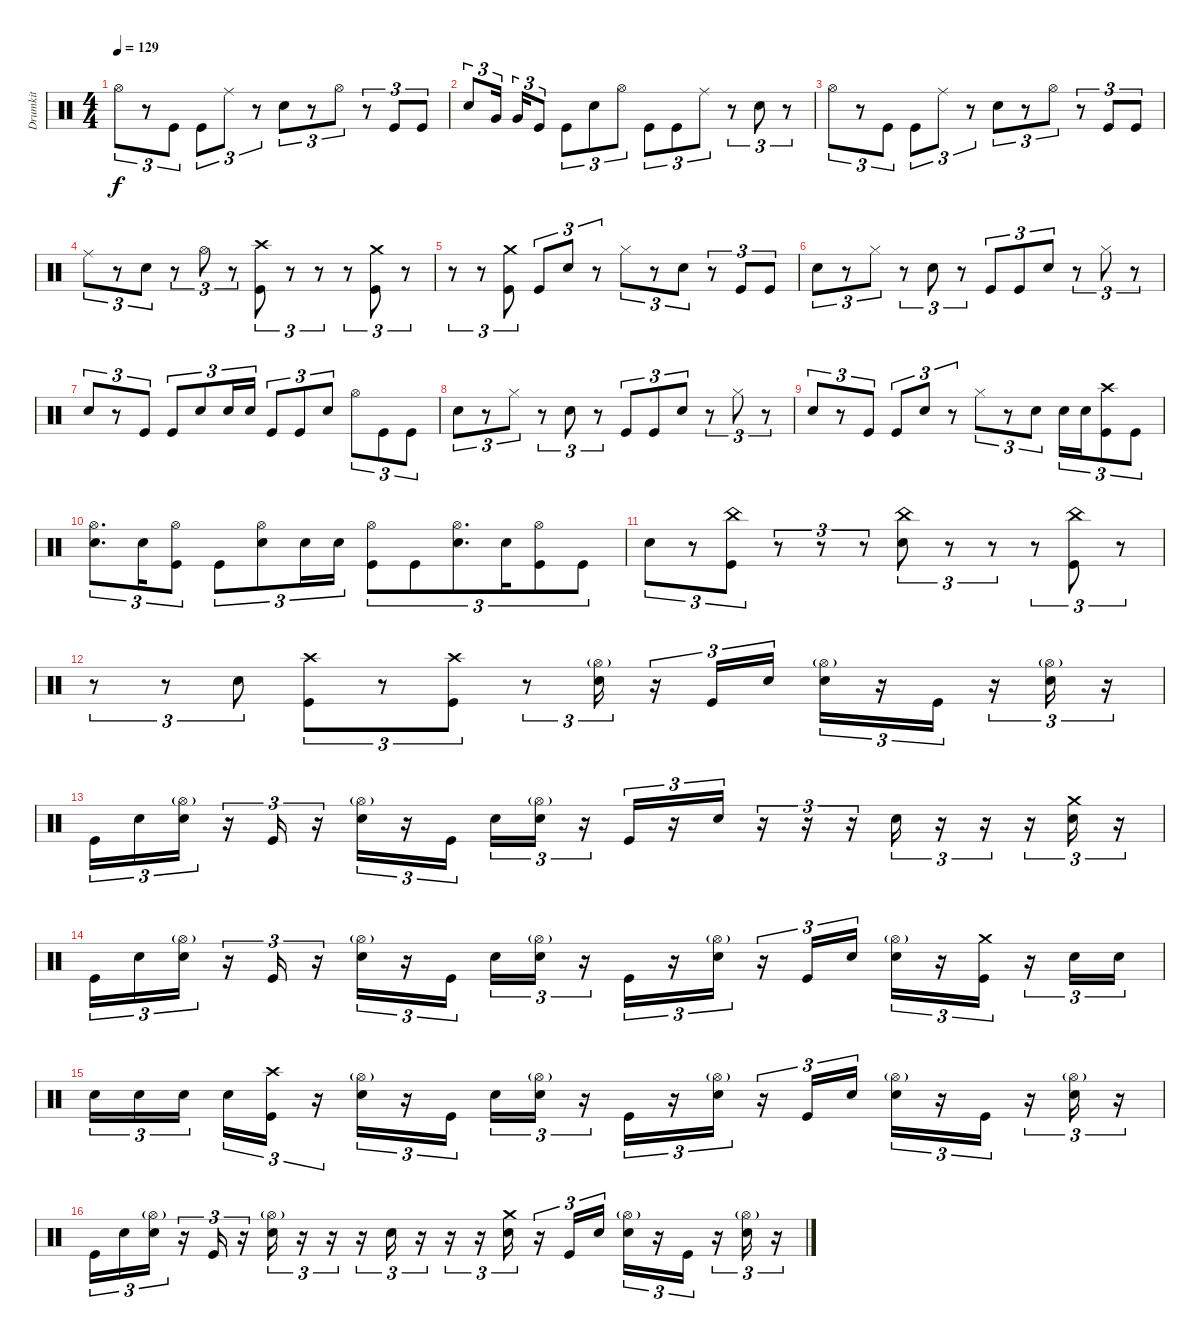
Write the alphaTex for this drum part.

\track ("Drumkit" "Drumkit") {instrument percussion}
\staff {score}
\articulation defaults
\ts (4 4)
\tempo 129
\clef neutral
\ks c "Hi-Hat (open)".8{tu (3 2) dy f}
r.8{tu (3 2)} "Kick (hit)".8{tu (3 2)} "Kick (hit)".8{tu (3 2)} "Ride (middle)".8{tu (3 2)} r.8{tu (3 2)} "Snare (hit) 2".8{tu (3 2)} r.8{tu (3 2)} "Hi-Hat (open)".8{tu (3 2)} r.8{tu (3 2)} "Kick (hit)".8{tu (3 2)} "Kick (hit)".8{tu (3 2)} |
"Snare (hit) 2".8{tu (3 2)} "Very Low Tom (hit)".16{tu (3 2)} "Very Low Tom (hit)".16{tu (3 2)} "Kick (hit)".8{tu (3 2)} "Kick (hit)".8{tu (3 2)} "Snare (hit) 2".8{tu (3 2)} "Hi-Hat (open)".8{tu (3 2)} "Kick (hit)".8{tu (3 2)} "Kick (hit)".8{tu (3 2)} "Ride (middle)".8{tu (3 2)} r.8{tu (3 2)} "Snare (hit) 2".8{tu (3 2)} r.8{tu (3 2)} |
"Hi-Hat (open)".8{tu (3 2)} r.8{tu (3 2)} "Kick (hit)".8{tu (3 2)} "Kick (hit)".8{tu (3 2)} "Ride (middle)".8{tu (3 2)} r.8{tu (3 2)} "Snare (hit) 2".8{tu (3 2)} r.8{tu (3 2)} "Hi-Hat (open)".8{tu (3 2)} r.8{tu (3 2)} "Kick (hit)".8{tu (3 2)} "Kick (hit)".8{tu (3 2)} |
"Ride (middle)".8{tu (3 2)} r.8{tu (3 2)} "Snare (hit) 2".8{tu (3 2)} r.8{tu (3 2)} "Hi-Hat (open)".8{tu (3 2)} r.8{tu (3 2)} ("Kick (hit)" "Crash high (hit)").8{tu (3 2)} r.8{tu (3 2)} r.8{tu (3 2)} r.8{tu (3 2)} ("Kick (hit)" "Crash medium (hit)").8{tu (3 2)} r.8{tu (3 2)} |
r.8{tu (3 2)} r.8{tu (3 2)} ("Kick (hit)" "Crash medium (hit)").8{tu (3 2)} "Kick (hit)".8{tu (3 2)} "Snare (hit) 2".8{tu (3 2)} r.8{tu (3 2)} "Hi-Hat (closed)".8{tu (3 2)} r.8{tu (3 2)} "Snare (hit) 2".8{tu (3 2)} r.8{tu (3 2)} "Kick (hit)".8{tu (3 2)} "Kick (hit)".8{tu (3 2)} |
"Snare (hit) 2".8{tu (3 2)} r.8{tu (3 2)} "Hi-Hat (closed)".8{tu (3 2)} r.8{tu (3 2)} "Snare (hit) 2".8{tu (3 2)} r.8{tu (3 2)} "Kick (hit)".8{tu (3 2)} "Kick (hit)".8{tu (3 2)} "Snare (hit) 2".8{tu (3 2)} r.8{tu (3 2)} "Hi-Hat (closed)".8{tu (3 2)} r.8{tu (3 2)} |
"Snare (hit) 2".8{tu (3 2)} r.8{tu (3 2)} "Kick (hit)".8{tu (3 2)} "Kick (hit)".8{tu (3 2)} "Snare (hit) 2".8{tu (3 2)} "Snare (hit) 2".16{tu (3 2)} "Snare (hit) 2".16{tu (3 2)} "Kick (hit)".8{tu (3 2)} "Kick (hit)".8{tu (3 2)} "Snare (hit) 2".8{tu (3 2)} "Hi-Hat (open)".8{tu (3 2)} "Kick (hit)".8{tu (3 2)} "Kick (hit)".8{tu (3 2)} |
"Snare (hit) 2".8{tu (3 2)} r.8{tu (3 2)} "Hi-Hat (closed)".8{tu (3 2)} r.8{tu (3 2)} "Snare (hit) 2".8{tu (3 2)} r.8{tu (3 2)} "Kick (hit)".8{tu (3 2)} "Kick (hit)".8{tu (3 2)} "Snare (hit) 2".8{tu (3 2)} r.8{tu (3 2)} "Hi-Hat (closed)".8{tu (3 2)} r.8{tu (3 2)} |
"Snare (hit) 2".8{tu (3 2)} r.8{tu (3 2)} "Kick (hit)".8{tu (3 2)} "Kick (hit)".8{tu (3 2)} "Snare (hit) 2".8{tu (3 2)} r.8{tu (3 2)} "Hi-Hat (closed)".8{tu (3 2)} r.8{tu (3 2)} "Snare (hit) 2".8{tu (3 2)} "Snare (hit) 2".16{tu (3 2)} "Snare (hit) 2".16{tu (3 2)} ("Kick (hit)" "Crash high (hit)").8{tu (3 2)} "Kick (hit)".8{tu (3 2)} |
("Snare (hit) 2" "Hi-Hat (open)").8{d tu (3 2)} "Snare (hit) 2".16{tu (3 2)} ("Kick (hit)" "Hi-Hat (open)").8{tu (3 2)} "Kick (hit)".8{tu (3 2)} ("Snare (hit) 2" "Hi-Hat (open)").8{tu (3 2)} "Snare (hit) 2".16{tu (3 2)} "Snare (hit) 2".16{tu (3 2)} ("Kick (hit)" "Hi-Hat (open)").8{tu (3 2)} "Kick (hit)".8{tu (3 2)} ("Snare (hit) 2" "Hi-Hat (open)").8{d tu (3 2)} "Snare (hit) 2".16{tu (3 2)} ("Kick (hit)" "Hi-Hat (open)").8{tu (3 2)} "Kick (hit)".8{tu (3 2)} |
"Snare (hit) 2".8{tu (3 2)} r.8{tu (3 2)} ("Kick (hit)" "China (hit)").8{tu (3 2)} r.8{tu (3 2)} r.8{tu (3 2)} r.8{tu (3 2)} ("Snare (hit) 2" "China (hit)").8{tu (3 2)} r.8{tu (3 2)} r.8{tu (3 2)} r.8{tu (3 2)} ("Kick (hit)" "China (hit)").8{tu (3 2)} r.8{tu (3 2)} |
r.8{tu (3 2)} r.8{tu (3 2)} "Snare (hit) 2".8{tu (3 2)} ("Kick (hit)" "Crash high (hit)").8{tu (3 2)} r.8{tu (3 2)} ("Kick (hit)" "Crash high (hit)").8{tu (3 2)} r.8{tu (3 2)} ("Snare (hit) 2" "Hi-Hat (open)"{g}).16{tu (3 2)} r.16{tu (3 2)} "Kick (hit)".16{tu (3 2)} "Snare (hit) 2".16{tu (3 2)} ("Snare (hit) 2" "Hi-Hat (open)"{g}).16{tu (3 2)} r.16{tu (3 2)} "Kick (hit)".16{tu (3 2)} r.16{tu (3 2)} ("Snare (hit) 2" "Hi-Hat (open)"{g}).16{tu (3 2)} r.16{tu (3 2)} |
"Kick (hit)".16{tu (3 2)} "Snare (hit) 2".16{tu (3 2)} ("Snare (hit) 2" "Hi-Hat (open)"{g}).16{tu (3 2)} r.16{tu (3 2)} "Kick (hit)".16{tu (3 2)} r.16{tu (3 2)} ("Snare (hit) 2" "Hi-Hat (open)"{g}).16{tu (3 2)} r.16{tu (3 2)} "Kick (hit)".16{tu (3 2)} "Snare (hit) 2".16{tu (3 2)} ("Snare (hit) 2" "Hi-Hat (open)"{g}).16{tu (3 2)} r.16{tu (3 2)} "Kick (hit)".16{tu (3 2)} r.16{tu (3 2)} "Snare (hit) 2".16{tu (3 2)} r.16{tu (3 2)} r.16{tu (3 2)} r.16{tu (3 2)} "Snare (hit) 2".16{tu (3 2)} r.16{tu (3 2)} r.16{tu (3 2)} r.16{tu (3 2)} ("Snare (hit) 2" "Crash medium (hit)").16{tu (3 2)} r.16{tu (3 2)} |
"Kick (hit)".16{tu (3 2)} "Snare (hit) 2".16{tu (3 2)} ("Snare (hit) 2" "Hi-Hat (open)"{g}).16{tu (3 2)} r.16{tu (3 2)} "Kick (hit)".16{tu (3 2)} r.16{tu (3 2)} ("Snare (hit) 2" "Hi-Hat (open)"{g}).16{tu (3 2)} r.16{tu (3 2)} "Kick (hit)".16{tu (3 2)} "Snare (hit) 2".16{tu (3 2)} ("Snare (hit) 2" "Hi-Hat (open)"{g}).16{tu (3 2)} r.16{tu (3 2)} "Kick (hit)".16{tu (3 2)} r.16{tu (3 2)} ("Snare (hit) 2" "Hi-Hat (open)"{g}).16{tu (3 2)} r.16{tu (3 2)} "Kick (hit)".16{tu (3 2)} "Snare (hit) 2".16{tu (3 2)} ("Snare (hit) 2" "Hi-Hat (open)"{g}).16{tu (3 2)} r.16{tu (3 2)} ("Kick (hit)" "Crash medium (hit)").16{tu (3 2)} r.16{tu (3 2)} "Snare (hit) 2".16{tu (3 2)} "Snare (hit) 2".16{tu (3 2)} |
"Snare (hit) 2".16{tu (3 2)} "Snare (hit) 2".16{tu (3 2)} "Snare (hit) 2".16{tu (3 2)} "Snare (hit) 2".16{tu (3 2)} ("Kick (hit)" "Crash high (hit)").16{tu (3 2)} r.16{tu (3 2)} ("Snare (hit) 2" "Hi-Hat (open)"{g}).16{tu (3 2)} r.16{tu (3 2)} "Kick (hit)".16{tu (3 2)} "Snare (hit) 2".16{tu (3 2)} ("Snare (hit) 2" "Hi-Hat (open)"{g}).16{tu (3 2)} r.16{tu (3 2)} "Kick (hit)".16{tu (3 2)} r.16{tu (3 2)} ("Snare (hit) 2" "Hi-Hat (open)"{g}).16{tu (3 2)} r.16{tu (3 2)} "Kick (hit)".16{tu (3 2)} "Snare (hit) 2".16{tu (3 2)} ("Snare (hit) 2" "Hi-Hat (open)"{g}).16{tu (3 2)} r.16{tu (3 2)} "Kick (hit)".16{tu (3 2)} r.16{tu (3 2)} ("Snare (hit) 2" "Hi-Hat (open)"{g}).16{tu (3 2)} r.16{tu (3 2)} |
"Kick (hit)".16{tu (3 2)} "Snare (hit) 2".16{tu (3 2)} ("Snare (hit) 2" "Hi-Hat (open)"{g}).16{tu (3 2)} r.16{tu (3 2)} "Kick (hit)".16{tu (3 2)} r.16{tu (3 2)} ("Snare (hit) 2" "Hi-Hat (open)"{g}).16{tu (3 2)} r.16{tu (3 2)} r.16{tu (3 2)} r.16{tu (3 2)} "Snare (hit) 2".16{tu (3 2)} r.16{tu (3 2)} r.16{tu (3 2)} r.16{tu (3 2)} ("Crash medium (hit)" "Snare (hit) 2").16{tu (3 2)} r.16{tu (3 2)} "Kick (hit)".16{tu (3 2)} "Snare (hit) 2".16{tu (3 2)} ("Snare (hit) 2" "Hi-Hat (open)"{g}).16{tu (3 2)} r.16{tu (3 2)} "Kick (hit)".16{tu (3 2)} r.16{tu (3 2)} ("Snare (hit) 2" "Hi-Hat (open)"{g}).16{tu (3 2)} r.16{tu (3 2)}
